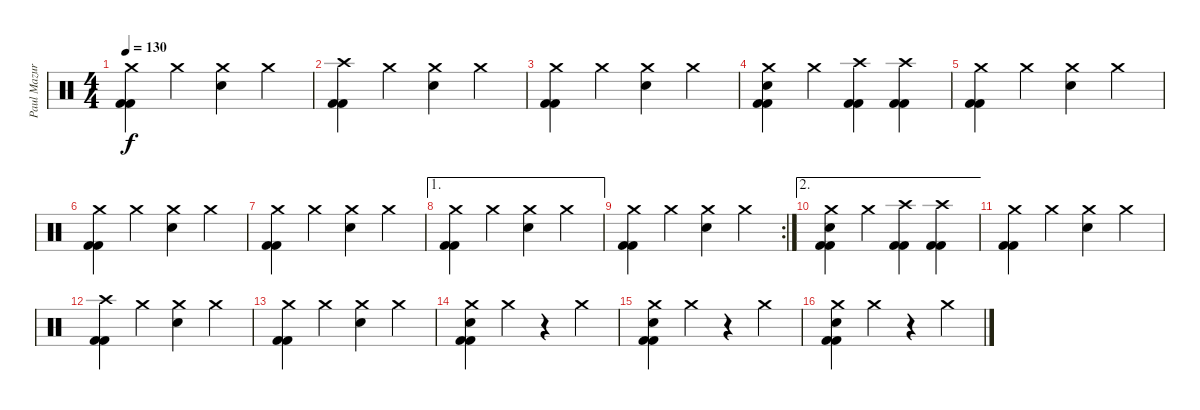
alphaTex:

\track ("Paul Mazurkiewicz" "Paul Mazur") {instrument percussion}
\staff {score}
\articulation defaults
\ts (4 4)
\tempo 130
\clef neutral
\ks c
("Crash medium (hit)" "Kick (hit) 2" "Kick (hit) 2").4{dy f} "Crash medium (hit)".4 ("Crash medium (hit)" "Snare (hit) 2").4 "Crash medium (hit)".4 |
("Crash high (hit)" "Kick (hit) 2" "Kick (hit) 2").4 "Crash medium (hit)".4 ("Crash medium (hit)" "Snare (hit) 2").4 "Crash medium (hit)".4 |
("Crash medium (hit)" "Kick (hit) 2" "Kick (hit) 2").4 "Crash medium (hit)".4 ("Crash medium (hit)" "Snare (hit) 2").4 "Crash medium (hit)".4 |
("Crash medium (hit)" "Snare (hit) 2" "Kick (hit) 2" "Kick (hit) 2").4 "Crash medium (hit)".4 ("Crash high (hit)" "Kick (hit) 2" "Kick (hit) 2").4 ("Crash high (hit)" "Kick (hit) 2" "Kick (hit) 2").4 |
("Crash medium (hit)" "Kick (hit) 2" "Kick (hit) 2").4 "Crash medium (hit)".4 ("Crash medium (hit)" "Snare (hit) 2").4 "Crash medium (hit)".4 |
("Crash medium (hit)" "Kick (hit) 2" "Kick (hit) 2").4 "Crash medium (hit)".4 ("Crash medium (hit)" "Snare (hit) 2").4 "Crash medium (hit)".4 |
("Crash medium (hit)" "Kick (hit) 2" "Kick (hit) 2").4 "Crash medium (hit)".4 ("Crash medium (hit)" "Snare (hit) 2").4 "Crash medium (hit)".4 |
\ae 1
("Crash medium (hit)" "Kick (hit) 2" "Kick (hit) 2").4 "Crash medium (hit)".4 ("Crash medium (hit)" "Snare (hit) 2").4 "Crash medium (hit)".4 |
\rc 2
("Crash medium (hit)" "Kick (hit) 2" "Kick (hit) 2").4 "Crash medium (hit)".4 ("Crash medium (hit)" "Snare (hit) 2").4 "Crash medium (hit)".4 |
\ae 2
("Crash medium (hit)" "Snare (hit) 2" "Kick (hit) 2" "Kick (hit) 2").4 "Crash medium (hit)".4 ("Crash high (hit)" "Kick (hit) 2" "Kick (hit) 2").4 ("Crash high (hit)" "Kick (hit) 2" "Kick (hit) 2").4 |
("Crash medium (hit)" "Kick (hit) 2" "Kick (hit) 2").4 "Crash medium (hit)".4 ("Crash medium (hit)" "Snare (hit) 2").4 "Crash medium (hit)".4 |
("Crash high (hit)" "Kick (hit) 2" "Kick (hit) 2").4 "Crash medium (hit)".4 ("Crash medium (hit)" "Snare (hit) 2").4 "Crash medium (hit)".4 |
("Crash medium (hit)" "Kick (hit) 2" "Kick (hit) 2").4 "Crash medium (hit)".4 ("Crash medium (hit)" "Snare (hit) 2").4 "Crash medium (hit)".4 |
("Crash medium (hit)" "Snare (hit) 2" "Kick (hit) 2" "Kick (hit) 2").4 "Crash medium (hit)".4 r.4 "Crash medium (hit)".4 |
("Crash medium (hit)" "Snare (hit) 2" "Kick (hit) 2" "Kick (hit) 2").4 "Crash medium (hit)".4 r.4 "Crash medium (hit)".4 |
("Crash medium (hit)" "Snare (hit) 2" "Kick (hit) 2" "Kick (hit) 2").4 "Crash medium (hit)".4 r.4 "Crash medium (hit)".4
